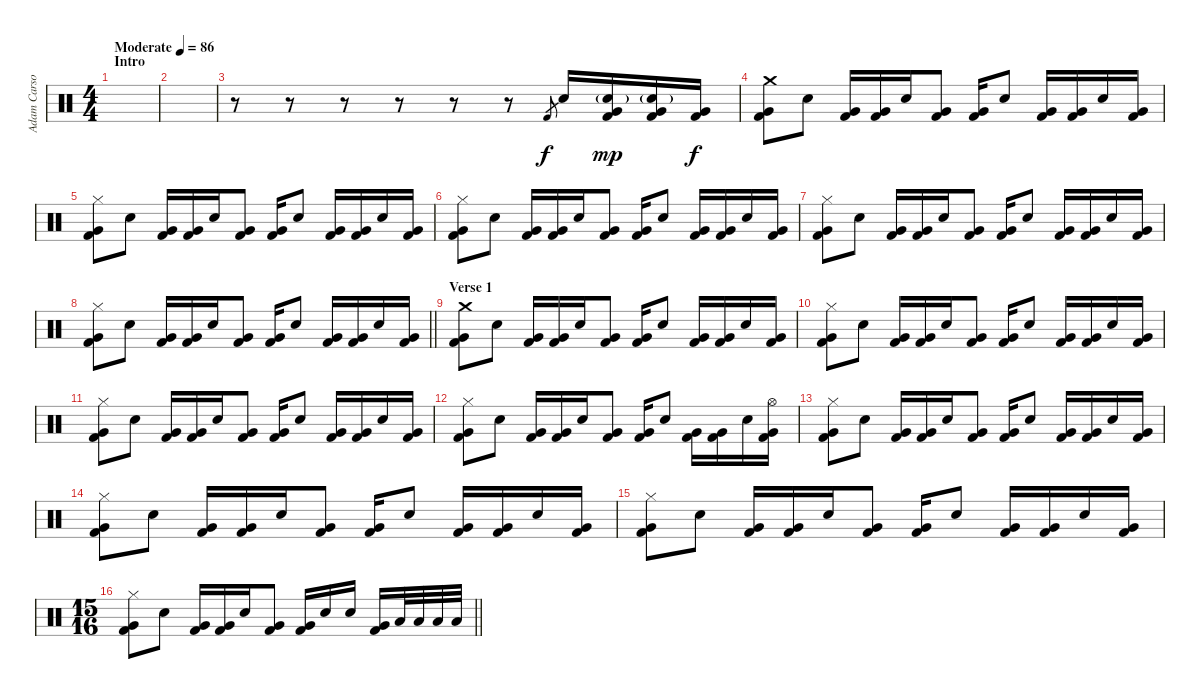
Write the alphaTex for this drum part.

\track ("Adam Carson" "Adam Carso") {instrument percussion}
\staff {score}
\articulation defaults
\ts (4 4)
\section ("" "Intro")
\tempo (86 "Moderate")
\clef neutral
\ks c
|
|
r.8 r.8 r.8 r.8 r.8 r.8 "Kick (hit) 2".8{gr} "Snare (hit) 2".16 ("Snare (hit) 2"{g} "Very Low Tom (hit)" "Kick (hit) 2").16{dy mp} ("Snare (hit) 2"{g} "Very Low Tom (hit)" "Kick (hit) 2").16 ("Very Low Tom (hit)" "Kick (hit) 2").16{dy f} |
("Crash medium (hit)" "Very Low Tom (hit)" "Kick (hit) 2").8 "Snare (hit) 2".8 ("Very Low Tom (hit)" "Kick (hit) 2").16 ("Very Low Tom (hit)" "Kick (hit) 2").16 "Snare (hit) 2".16 ("Very Low Tom (hit)" "Kick (hit) 2").8 ("Very Low Tom (hit)" "Kick (hit) 2").16 "Snare (hit) 2".8 ("Very Low Tom (hit)" "Kick (hit) 2").16 ("Very Low Tom (hit)" "Kick (hit) 2").16 "Snare (hit) 2".16 ("Very Low Tom (hit)" "Kick (hit) 2").16 |
("Hi-Hat (closed)" "Very Low Tom (hit)" "Kick (hit) 2").8 "Snare (hit) 2".8 ("Very Low Tom (hit)" "Kick (hit) 2").16 ("Very Low Tom (hit)" "Kick (hit) 2").16 "Snare (hit) 2".16 ("Very Low Tom (hit)" "Kick (hit) 2").8 ("Very Low Tom (hit)" "Kick (hit) 2").16 "Snare (hit) 2".8 ("Very Low Tom (hit)" "Kick (hit) 2").16 ("Very Low Tom (hit)" "Kick (hit) 2").16 "Snare (hit) 2".16 ("Very Low Tom (hit)" "Kick (hit) 2").16 |
("Hi-Hat (closed)" "Very Low Tom (hit)" "Kick (hit) 2").8 "Snare (hit) 2".8 ("Very Low Tom (hit)" "Kick (hit) 2").16 ("Very Low Tom (hit)" "Kick (hit) 2").16 "Snare (hit) 2".16 ("Very Low Tom (hit)" "Kick (hit) 2").8 ("Very Low Tom (hit)" "Kick (hit) 2").16 "Snare (hit) 2".8 ("Very Low Tom (hit)" "Kick (hit) 2").16 ("Very Low Tom (hit)" "Kick (hit) 2").16 "Snare (hit) 2".16 ("Very Low Tom (hit)" "Kick (hit) 2").16 |
("Hi-Hat (closed)" "Very Low Tom (hit)" "Kick (hit) 2").8 "Snare (hit) 2".8 ("Very Low Tom (hit)" "Kick (hit) 2").16 ("Very Low Tom (hit)" "Kick (hit) 2").16 "Snare (hit) 2".16 ("Very Low Tom (hit)" "Kick (hit) 2").8 ("Very Low Tom (hit)" "Kick (hit) 2").16 "Snare (hit) 2".8 ("Very Low Tom (hit)" "Kick (hit) 2").16 ("Very Low Tom (hit)" "Kick (hit) 2").16 "Snare (hit) 2".16 ("Very Low Tom (hit)" "Kick (hit) 2").16 |
\barLineRight lightlight
("Hi-Hat (closed)" "Very Low Tom (hit)" "Kick (hit) 2").8 "Snare (hit) 2".8 ("Very Low Tom (hit)" "Kick (hit) 2").16 ("Very Low Tom (hit)" "Kick (hit) 2").16 "Snare (hit) 2".16 ("Very Low Tom (hit)" "Kick (hit) 2").8 ("Very Low Tom (hit)" "Kick (hit) 2").16 "Snare (hit) 2".8 ("Very Low Tom (hit)" "Kick (hit) 2").16 ("Very Low Tom (hit)" "Kick (hit) 2").16 "Snare (hit) 2".16 ("Very Low Tom (hit)" "Kick (hit) 2").16 |
\section ("" "Verse 1")
("Crash medium (hit)" "Very Low Tom (hit)" "Kick (hit) 2").8 "Snare (hit) 2".8 ("Very Low Tom (hit)" "Kick (hit) 2").16 ("Very Low Tom (hit)" "Kick (hit) 2").16 "Snare (hit) 2".16 ("Very Low Tom (hit)" "Kick (hit) 2").8 ("Very Low Tom (hit)" "Kick (hit) 2").16 "Snare (hit) 2".8 ("Very Low Tom (hit)" "Kick (hit) 2").16 ("Very Low Tom (hit)" "Kick (hit) 2").16 "Snare (hit) 2".16 ("Very Low Tom (hit)" "Kick (hit) 2").16 |
("Hi-Hat (closed)" "Very Low Tom (hit)" "Kick (hit) 2").8 "Snare (hit) 2".8 ("Very Low Tom (hit)" "Kick (hit) 2").16 ("Very Low Tom (hit)" "Kick (hit) 2").16 "Snare (hit) 2".16 ("Very Low Tom (hit)" "Kick (hit) 2").8 ("Very Low Tom (hit)" "Kick (hit) 2").16 "Snare (hit) 2".8 ("Very Low Tom (hit)" "Kick (hit) 2").16 ("Very Low Tom (hit)" "Kick (hit) 2").16 "Snare (hit) 2".16 ("Very Low Tom (hit)" "Kick (hit) 2").16 |
("Hi-Hat (closed)" "Very Low Tom (hit)" "Kick (hit) 2").8 "Snare (hit) 2".8 ("Very Low Tom (hit)" "Kick (hit) 2").16 ("Very Low Tom (hit)" "Kick (hit) 2").16 "Snare (hit) 2".16 ("Very Low Tom (hit)" "Kick (hit) 2").8 ("Very Low Tom (hit)" "Kick (hit) 2").16 "Snare (hit) 2".8 ("Very Low Tom (hit)" "Kick (hit) 2").16 ("Very Low Tom (hit)" "Kick (hit) 2").16 "Snare (hit) 2".16 ("Very Low Tom (hit)" "Kick (hit) 2").16 |
("Hi-Hat (closed)" "Very Low Tom (hit)" "Kick (hit) 2").8 "Snare (hit) 2".8 ("Very Low Tom (hit)" "Kick (hit) 2").16 ("Very Low Tom (hit)" "Kick (hit) 2").16 "Snare (hit) 2".16 ("Very Low Tom (hit)" "Kick (hit) 2").8 ("Very Low Tom (hit)" "Kick (hit) 2").16 "Snare (hit) 2".8 ("Very Low Tom (hit)" "Kick (hit) 2").16 ("Very Low Tom (hit)" "Kick (hit) 2").16 "Snare (hit) 2".16 ("Hi-Hat (open)" "Very Low Tom (hit)" "Kick (hit) 2").16 |
("Hi-Hat (closed)" "Very Low Tom (hit)" "Kick (hit) 2").8 "Snare (hit) 2".8 ("Very Low Tom (hit)" "Kick (hit) 2").16 ("Very Low Tom (hit)" "Kick (hit) 2").16 "Snare (hit) 2".16 ("Very Low Tom (hit)" "Kick (hit) 2").8 ("Very Low Tom (hit)" "Kick (hit) 2").16 "Snare (hit) 2".8 ("Very Low Tom (hit)" "Kick (hit) 2").16 ("Very Low Tom (hit)" "Kick (hit) 2").16 "Snare (hit) 2".16 ("Very Low Tom (hit)" "Kick (hit) 2").16 |
("Hi-Hat (closed)" "Very Low Tom (hit)" "Kick (hit) 2").8 "Snare (hit) 2".8 ("Very Low Tom (hit)" "Kick (hit) 2").16 ("Very Low Tom (hit)" "Kick (hit) 2").16 "Snare (hit) 2".16 ("Very Low Tom (hit)" "Kick (hit) 2").8 ("Very Low Tom (hit)" "Kick (hit) 2").16 "Snare (hit) 2".8 ("Very Low Tom (hit)" "Kick (hit) 2").16 ("Very Low Tom (hit)" "Kick (hit) 2").16 "Snare (hit) 2".16 ("Very Low Tom (hit)" "Kick (hit) 2").16 |
("Hi-Hat (closed)" "Very Low Tom (hit)" "Kick (hit) 2").8 "Snare (hit) 2".8 ("Very Low Tom (hit)" "Kick (hit) 2").16 ("Very Low Tom (hit)" "Kick (hit) 2").16 "Snare (hit) 2".16 ("Very Low Tom (hit)" "Kick (hit) 2").8 ("Very Low Tom (hit)" "Kick (hit) 2").16 "Snare (hit) 2".8 ("Very Low Tom (hit)" "Kick (hit) 2").16 ("Very Low Tom (hit)" "Kick (hit) 2").16 "Snare (hit) 2".16 ("Very Low Tom (hit)" "Kick (hit) 2").16 |
\ts (15 16)
\barLineRight lightlight
("Hi-Hat (closed)" "Very Low Tom (hit)" "Kick (hit) 2").8 "Snare (hit) 2".8 ("Very Low Tom (hit)" "Kick (hit) 2").16 ("Very Low Tom (hit)" "Kick (hit) 2").16 "Snare (hit) 2".16 ("Very Low Tom (hit)" "Kick (hit) 2").8 ("Very Low Tom (hit)" "Kick (hit) 2").16 "Snare (hit) 2".16 "Snare (hit) 2".16 ("Very Low Tom (hit)" "Kick (hit) 2").16 "Low Tom (hit)".32 "Low Tom (hit)".32 "Low Tom (hit)".32 "Low Tom (hit)".32
